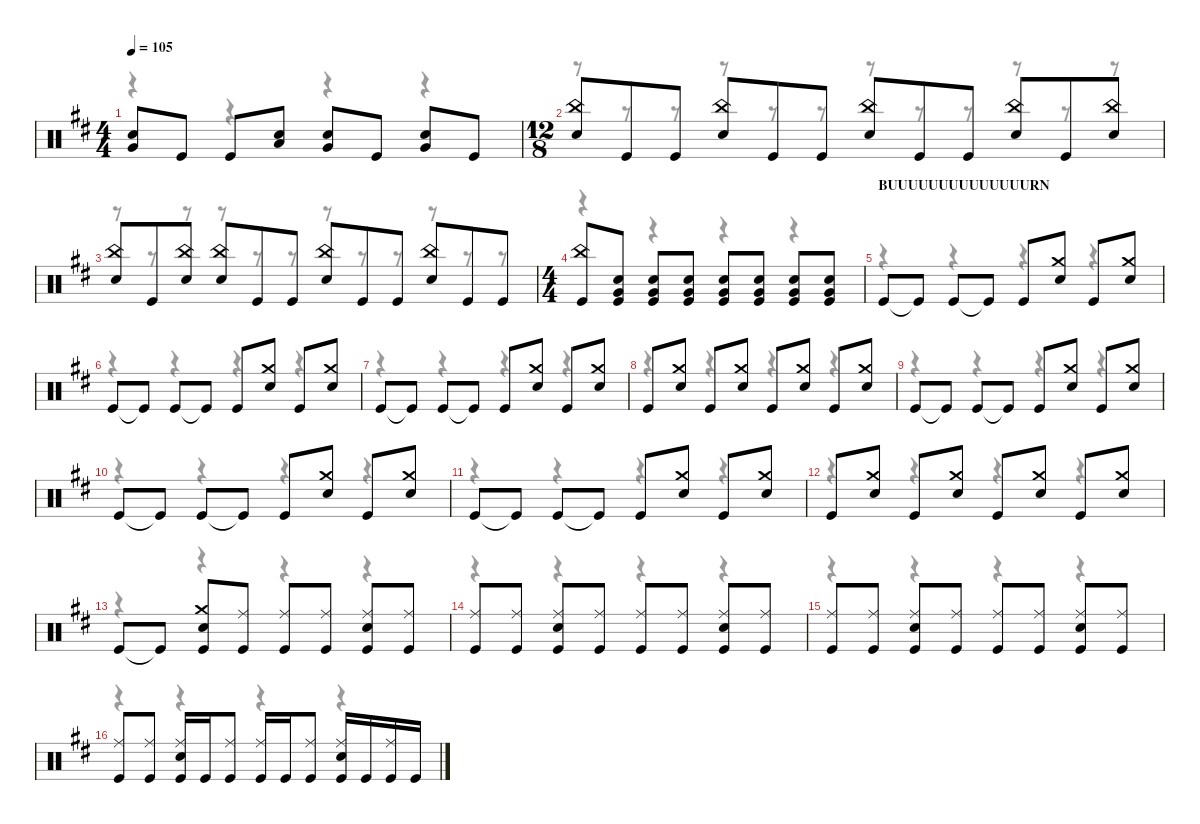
\defaultSystemsLayout 4
\hideDynamics
\bracketExtendMode nobrackets
\singleTrackTrackNamePolicy hidden
\multiTrackTrackNamePolicy hidden
\firstSystemTrackNameMode fullname
\firstSystemTrackNameOrientation horizontal
\otherSystemsTrackNameOrientation horizontal
\track ("Drums" "drm.") {instrument percussion}
\staff {score}
\articulation defaults
\voice
\ts (4 4)
\beaming (8 2 2 2 2)
\tempo 105
\clef neutral
\ks bminor
("Snare (hit) 2"{acc forcenatural} "Very Low Tom (hit)"{acc forcenatural}).8{dy f beam Up} "Kick (hit)"{acc forcenatural}.8{beam Up} "Kick (hit)"{acc forcenatural}.8{beam Up} ("Snare (hit) 2"{acc forcenatural} "Low Tom (hit)"{acc forcenatural}).8{beam Up} ("Snare (hit) 2"{acc forcenatural} "Very Low Tom (hit)"{acc forcenatural}).8{beam Up} "Kick (hit)"{acc forcenatural}.8{beam Up} ("Snare (hit) 2"{acc forcenatural} "Very Low Tom (hit)"{acc forcenatural}).8{beam Up} "Kick (hit)"{acc forcenatural}.8{beam Up} |
\ts (12 8)
\beaming (8 3 3 3 3)
("Snare (hit) 2"{acc forcenatural} "China (hit)"{acc forcenatural}).8{beam Up} "Kick (hit)"{acc forcenatural}.8{beam Up} "Kick (hit)"{acc forcenatural}.8{beam Up} ("Snare (hit) 2"{acc forcenatural} "China (hit)"{acc forcenatural}).8{beam Up} "Kick (hit)"{acc forcenatural}.8{beam Up} "Kick (hit)"{acc forcenatural}.8{beam Up} ("Snare (hit) 2"{acc forcenatural} "China (hit)"{acc forcenatural}).8{beam Up} "Kick (hit)"{acc forcenatural}.8{beam Up} "Kick (hit)"{acc forcenatural}.8{beam Up} ("Snare (hit) 2"{acc forcenatural} "China (hit)"{acc forcenatural}).8{beam Up} "Kick (hit)"{acc forcenatural}.8{beam Up} ("Snare (hit) 2"{acc forcenatural} "China (hit)"{acc forcenatural}).8{beam Up} |
("Snare (hit) 2"{acc forcenatural} "China (hit)"{acc forcenatural}).8{beam Up} "Kick (hit)"{acc forcenatural}.8{beam Up} ("Snare (hit) 2"{acc forcenatural} "China (hit)"{acc forcenatural}).8{beam Up} ("Snare (hit) 2"{acc forcenatural} "China (hit)"{acc forcenatural}).8{beam Up} "Kick (hit)"{acc forcenatural}.8{beam Up} "Kick (hit)"{acc forcenatural}.8{beam Up} ("Snare (hit) 2"{acc forcenatural} "China (hit)"{acc forcenatural}).8{beam Up} "Kick (hit)"{acc forcenatural}.8{beam Up} "Kick (hit)"{acc forcenatural}.8{beam Up} ("Snare (hit) 2"{acc forcenatural} "China (hit)"{acc forcenatural}).8{beam Up} "Kick (hit)"{acc forcenatural}.8{beam Up} "Kick (hit)"{acc forcenatural}.8{beam Up} |
\ts (4 4)
\beaming (8 2 2 2 2)
("Kick (hit)"{acc forcenatural} "China (hit)"{acc forcenatural}).8{beam Up} ("Kick (hit)"{acc forcenatural} "Very Low Tom (hit)"{acc forcenatural} "Snare (hit) 2"{acc forcenatural}).8{dy ppp beam Up} ("Kick (hit)"{acc forcenatural} "Very Low Tom (hit)"{acc forcenatural} "Snare (hit) 2"{acc forcenatural}).8{dy pp beam Up} ("Kick (hit)"{acc forcenatural} "Very Low Tom (hit)"{acc forcenatural} "Snare (hit) 2"{acc forcenatural}).8{dy p beam Up} ("Kick (hit)"{acc forcenatural} "Very Low Tom (hit)"{acc forcenatural} "Snare (hit) 2"{acc forcenatural}).8{dy mp beam Up} ("Kick (hit)"{acc forcenatural} "Very Low Tom (hit)"{acc forcenatural} "Snare (hit) 2"{acc forcenatural}).8{dy mf beam Up} ("Kick (hit)"{acc forcenatural} "Very Low Tom (hit)"{acc forcenatural} "Snare (hit) 2"{acc forcenatural}).8{dy f beam Up} ("Kick (hit)"{acc forcenatural} "Very Low Tom (hit)"{acc forcenatural} "Snare (hit) 2"{acc forcenatural}).8{beam Up} |
\section ("" "BUUUUUUUUUUUUUURN")
"Kick (hit)"{acc forcenatural}.8{beam Up} "Kick (hit)"{t acc forcenatural}.8{beam Up} "Kick (hit)"{acc forcenatural}.8{beam Up} "Kick (hit)"{t acc forcenatural}.8{beam Up} "Kick (hit)"{acc forcenatural}.8{beam Up} ("Snare (hit) 2"{acc forcenatural} "Crash medium (hit)"{acc forcenatural}).8{beam Up} "Kick (hit)"{acc forcenatural}.8{beam Up} ("Snare (hit) 2"{acc forcenatural} "Crash medium (hit)"{acc forcenatural}).8{beam Up} |
"Kick (hit)"{acc forcenatural}.8{beam Up} "Kick (hit)"{t acc forcenatural}.8{beam Up} "Kick (hit)"{acc forcenatural}.8{beam Up} "Kick (hit)"{t acc forcenatural}.8{beam Up} "Kick (hit)"{acc forcenatural}.8{beam Up} ("Snare (hit) 2"{acc forcenatural} "Crash medium (hit)"{acc forcenatural}).8{beam Up} "Kick (hit)"{acc forcenatural}.8{beam Up} ("Snare (hit) 2"{acc forcenatural} "Crash medium (hit)"{acc forcenatural}).8{beam Up} |
"Kick (hit)"{acc forcenatural}.8{beam Up} "Kick (hit)"{t acc forcenatural}.8{beam Up} "Kick (hit)"{acc forcenatural}.8{beam Up} "Kick (hit)"{t acc forcenatural}.8{beam Up} "Kick (hit)"{acc forcenatural}.8{beam Up} ("Snare (hit) 2"{acc forcenatural} "Crash medium (hit)"{acc forcenatural}).8{beam Up} "Kick (hit)"{acc forcenatural}.8{beam Up} ("Snare (hit) 2"{acc forcenatural} "Crash medium (hit)"{acc forcenatural}).8{beam Up} |
"Kick (hit)"{acc forcenatural}.8{beam Up} ("Snare (hit) 2"{acc forcenatural} "Crash medium (hit)"{acc forcenatural}).8{beam Up} "Kick (hit)"{acc forcenatural}.8{beam Up} ("Snare (hit) 2"{acc forcenatural} "Crash medium (hit)"{acc forcenatural}).8{beam Up} "Kick (hit)"{acc forcenatural}.8{beam Up} ("Snare (hit) 2"{acc forcenatural} "Crash medium (hit)"{acc forcenatural}).8{beam Up} "Kick (hit)"{acc forcenatural}.8{beam Up} ("Snare (hit) 2"{acc forcenatural} "Crash medium (hit)"{acc forcenatural}).8{beam Up} |
"Kick (hit)"{acc forcenatural}.8{beam Up} "Kick (hit)"{t acc forcenatural}.8{beam Up} "Kick (hit)"{acc forcenatural}.8{beam Up} "Kick (hit)"{t acc forcenatural}.8{beam Up} "Kick (hit)"{acc forcenatural}.8{beam Up} ("Snare (hit) 2"{acc forcenatural} "Crash medium (hit)"{acc forcenatural}).8{beam Up} "Kick (hit)"{acc forcenatural}.8{beam Up} ("Snare (hit) 2"{acc forcenatural} "Crash medium (hit)"{acc forcenatural}).8{beam Up} |
"Kick (hit)"{acc forcenatural}.8{beam Up} "Kick (hit)"{t acc forcenatural}.8{beam Up} "Kick (hit)"{acc forcenatural}.8{beam Up} "Kick (hit)"{t acc forcenatural}.8{beam Up} "Kick (hit)"{acc forcenatural}.8{beam Up} ("Snare (hit) 2"{acc forcenatural} "Crash medium (hit)"{acc forcenatural}).8{beam Up} "Kick (hit)"{acc forcenatural}.8{beam Up} ("Snare (hit) 2"{acc forcenatural} "Crash medium (hit)"{acc forcenatural}).8{beam Up} |
"Kick (hit)"{acc forcenatural}.8{beam Up} "Kick (hit)"{t acc forcenatural}.8{beam Up} "Kick (hit)"{acc forcenatural}.8{beam Up} "Kick (hit)"{t acc forcenatural}.8{beam Up} "Kick (hit)"{acc forcenatural}.8{beam Up} ("Snare (hit) 2"{acc forcenatural} "Crash medium (hit)"{acc forcenatural}).8{beam Up} "Kick (hit)"{acc forcenatural}.8{beam Up} ("Snare (hit) 2"{acc forcenatural} "Crash medium (hit)"{acc forcenatural}).8{beam Up} |
"Kick (hit)"{acc forcenatural}.8{beam Up} ("Snare (hit) 2"{acc forcenatural} "Crash medium (hit)"{acc forcenatural}).8{beam Up} "Kick (hit)"{acc forcenatural}.8{beam Up} ("Snare (hit) 2"{acc forcenatural} "Crash medium (hit)"{acc forcenatural}).8{beam Up} "Kick (hit)"{acc forcenatural}.8{beam Up} ("Snare (hit) 2"{acc forcenatural} "Crash medium (hit)"{acc forcenatural}).8{beam Up} "Kick (hit)"{acc forcenatural}.8{beam Up} ("Snare (hit) 2"{acc forcenatural} "Crash medium (hit)"{acc forcenatural}).8{beam Up} |
"Kick (hit)"{acc forcenatural}.8{beam Up} "Kick (hit)"{t acc forcenatural}.8{beam Up} ("Kick (hit)"{acc forcenatural} "Crash medium (hit)"{acc forcenatural} "Snare (hit) 2"{acc forcenatural}).8{beam Up} ("Kick (hit)"{acc forcenatural} "Ride (middle)"{acc forcenatural}).8{beam Up} ("Kick (hit)"{acc forcenatural} "Ride (middle)"{acc forcenatural}).8{beam Up} ("Kick (hit)"{acc forcenatural} "Ride (middle)"{acc forcenatural}).8{beam Up} ("Kick (hit)"{acc forcenatural} "Ride (middle)"{acc forcenatural} "Snare (hit) 2"{acc forcenatural}).8{beam Up} ("Kick (hit)"{acc forcenatural} "Ride (middle)"{acc forcenatural}).8{beam Up} |
("Ride (middle)"{acc forcenatural} "Kick (hit)"{acc forcenatural}).8{beam Up} ("Ride (middle)"{acc forcenatural} "Kick (hit)"{acc forcenatural}).8{beam Up} ("Ride (middle)"{acc forcenatural} "Snare (hit) 2"{acc forcenatural} "Kick (hit)"{acc forcenatural}).8{beam Up} ("Ride (middle)"{acc forcenatural} "Kick (hit)"{acc forcenatural}).8{beam Up} ("Ride (middle)"{acc forcenatural} "Kick (hit)"{acc forcenatural}).8{beam Up} ("Ride (middle)"{acc forcenatural} "Kick (hit)"{acc forcenatural}).8{beam Up} ("Snare (hit) 2"{acc forcenatural} "Kick (hit)"{acc forcenatural} "Ride (middle)"{acc forcenatural}).8{beam Up} ("Kick (hit)"{acc forcenatural} "Ride (middle)"{acc forcenatural}).8{beam Up} |
("Ride (middle)"{acc forcenatural} "Kick (hit)"{acc forcenatural}).8{beam Up} ("Ride (middle)"{acc forcenatural} "Kick (hit)"{acc forcenatural}).8{beam Up} ("Ride (middle)"{acc forcenatural} "Snare (hit) 2"{acc forcenatural} "Kick (hit)"{acc forcenatural}).8{beam Up} ("Ride (middle)"{acc forcenatural} "Kick (hit)"{acc forcenatural}).8{beam Up} ("Ride (middle)"{acc forcenatural} "Kick (hit)"{acc forcenatural}).8{beam Up} ("Ride (middle)"{acc forcenatural} "Kick (hit)"{acc forcenatural}).8{beam Up} ("Snare (hit) 2"{acc forcenatural} "Kick (hit)"{acc forcenatural} "Ride (middle)"{acc forcenatural}).8{beam Up} ("Kick (hit)"{acc forcenatural} "Ride (middle)"{acc forcenatural}).8{beam Up} |
("Ride (middle)"{acc forcenatural} "Kick (hit)"{acc forcenatural}).8{beam Up} ("Ride (middle)"{acc forcenatural} "Kick (hit)"{acc forcenatural}).8{beam Up} ("Ride (middle)"{acc forcenatural} "Snare (hit) 2"{acc forcenatural} "Kick (hit)"{acc forcenatural}).16{beam Up} "Kick (hit)"{acc forcenatural}.16{beam Up} ("Ride (middle)"{acc forcenatural} "Kick (hit)"{acc forcenatural}).8{beam Up} ("Ride (middle)"{acc forcenatural} "Kick (hit)"{acc forcenatural}).16{beam Up} "Kick (hit)"{acc forcenatural}.16{beam Up} ("Ride (middle)"{acc forcenatural} "Kick (hit)"{acc forcenatural}).8{beam Up} ("Snare (hit) 2"{acc forcenatural} "Kick (hit)"{acc forcenatural} "Ride (middle)"{acc forcenatural}).16{beam Up} "Kick (hit)"{acc forcenatural}.16{beam Up} ("Kick (hit)"{acc forcenatural} "Ride (middle)"{acc forcenatural}).16{beam Up} "Kick (hit)"{acc forcenatural}.16{beam Up}
\voice
\clef neutral
\ottava regular
\simile none
\ks bminor
r.4{dy mf beam Down} r.4{beam Down} r.4{beam Down} r.4{beam Down} |
r.8{beam Down} r.8{beam Down} r.8{beam Down} r.8{beam Down} r.8{beam Down} r.8{beam Down} r.8{beam Down} r.8{beam Down} r.8{beam Down} r.8{beam Down} r.8{beam Down} r.8{beam Down} |
r.8{beam Down} r.8{beam Down} r.8{beam Down} r.8{beam Down} r.8{beam Down} r.8{beam Down} r.8{beam Down} r.8{beam Down} r.8{beam Down} r.8{beam Down} r.8{beam Down} r.8{beam Down} |
r.4{beam Down} r.4{beam Down} r.4{beam Down} r.4{beam Down} |
r.4{beam Down} r.4{beam Down} r.4{beam Down} r.4{beam Down} |
r.4{beam Down} r.4{beam Down} r.4{beam Down} r.4{beam Down} |
r.4{beam Down} r.4{beam Down} r.4{beam Down} r.4{beam Down} |
r.4{beam Down} r.4{beam Down} r.4{beam Down} r.4{beam Down} |
r.4{beam Down} r.4{beam Down} r.4{beam Down} r.4{beam Down} |
r.4{beam Down} r.4{beam Down} r.4{beam Down} r.4{beam Down} |
r.4{beam Down} r.4{beam Down} r.4{beam Down} r.4{beam Down} |
r.4{beam Down} r.4{beam Down} r.4{beam Down} r.4{beam Down} |
r.4{beam Down} r.4{beam Down} r.4{beam Down} r.4{beam Down} |
r.4{beam Down} r.4{beam Down} r.4{beam Down} r.4{beam Down} |
r.4{beam Down} r.4{beam Down} r.4{beam Down} r.4{beam Down} |
r.4{beam Down} r.4{beam Down} r.4{beam Down} r.4{beam Down}
